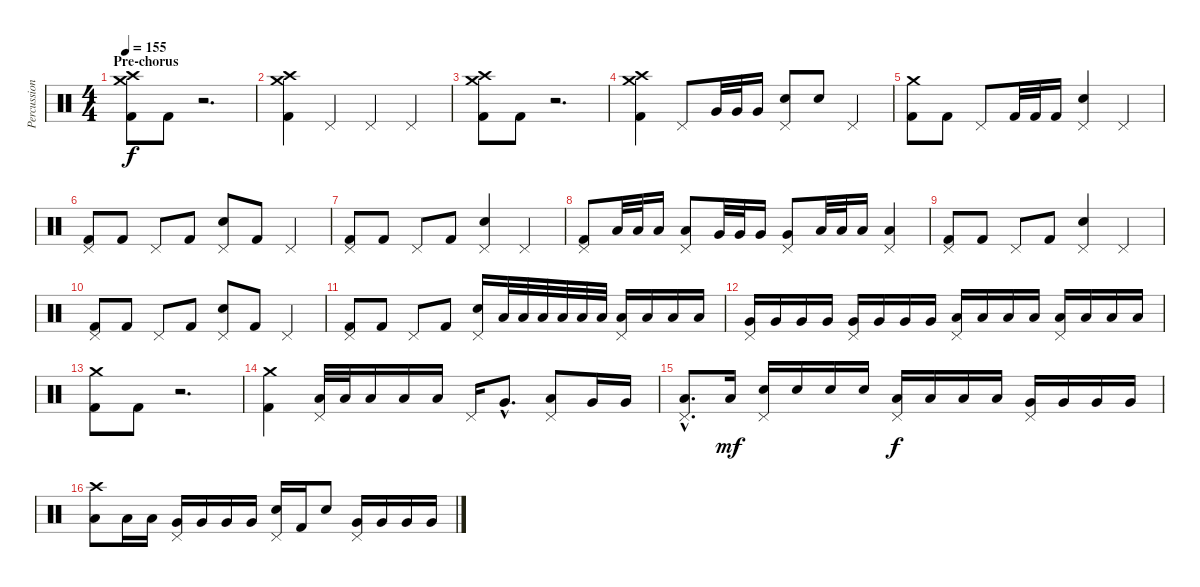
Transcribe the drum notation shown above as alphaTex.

\track ("Percussion" "Percussion") {instrument percussion}
\staff {score}
\articulation defaults
\ts (4 4)
\section ("" "Pre-chorus")
\tempo 155
\clef neutral
\ks c
("Crash medium (hit)" "Crash high (hit)" "Kick (hit) 2").8{dy f} "Kick (hit) 2".8 r.2{d} |
("Crash medium (hit)" "Crash high (hit)" "Kick (hit) 2").4 "Pedal Hi-Hat (hit)".4 "Pedal Hi-Hat (hit)".4 "Pedal Hi-Hat (hit)".4 |
("Crash medium (hit)" "Crash high (hit)" "Kick (hit) 2").8 "Kick (hit) 2".8 r.2{d} |
("Crash medium (hit)" "Crash high (hit)" "Kick (hit) 2").4 "Pedal Hi-Hat (hit)".8 "Very Low Tom (hit)".32 "Very Low Tom (hit)".32 "Very Low Tom (hit)".16 ("Pedal Hi-Hat (hit)" "Electric Snare (hit)").8 "Electric Snare (hit)".8 "Pedal Hi-Hat (hit)".4 |
("Crash medium (hit)" "Kick (hit) 2").8 "Kick (hit) 2".8 "Pedal Hi-Hat (hit)".8 "Kick (hit) 2".32 "Kick (hit) 2".32 "Kick (hit) 2".16 ("Pedal Hi-Hat (hit)" "Electric Snare (hit)").4 "Pedal Hi-Hat (hit)".4 |
("Pedal Hi-Hat (hit)" "Kick (hit) 2").8 "Kick (hit) 2".8 "Pedal Hi-Hat (hit)".8 "Kick (hit) 2".8 ("Pedal Hi-Hat (hit)" "Electric Snare (hit)").8 "Kick (hit) 2".8 "Pedal Hi-Hat (hit)".4 |
("Pedal Hi-Hat (hit)" "Kick (hit) 2").8 "Kick (hit) 2".8 "Pedal Hi-Hat (hit)".8 "Kick (hit) 2".8 ("Pedal Hi-Hat (hit)" "Electric Snare (hit)").4 "Pedal Hi-Hat (hit)".4 |
("Pedal Hi-Hat (hit)" "Kick (hit) 2").8 "Low Tom (hit)".32 "Low Tom (hit)".32 "Low Tom (hit)".16 ("Pedal Hi-Hat (hit)" "Low Tom (hit)").8 "Very Low Tom (hit)".32 "Very Low Tom (hit)".32 "Very Low Tom (hit)".16 ("Pedal Hi-Hat (hit)" "Very Low Tom (hit)").8 "Low Floor Tom (hit)".32 "Low Floor Tom (hit)".32 "Low Floor Tom (hit)".16 ("Pedal Hi-Hat (hit)" "Low Floor Tom (hit)").4 |
("Pedal Hi-Hat (hit)" "Kick (hit) 2").8 "Kick (hit) 2".8 "Pedal Hi-Hat (hit)".8 "Kick (hit) 2".8 ("Pedal Hi-Hat (hit)" "Electric Snare (hit)").4 "Pedal Hi-Hat (hit)".4 |
("Pedal Hi-Hat (hit)" "Kick (hit) 2").8 "Kick (hit) 2".8 "Pedal Hi-Hat (hit)".8 "Kick (hit) 2".8 ("Pedal Hi-Hat (hit)" "Electric Snare (hit)").8 "Kick (hit) 2".8 "Pedal Hi-Hat (hit)".4 |
("Pedal Hi-Hat (hit)" "Kick (hit) 2").8 "Kick (hit) 2".8 "Pedal Hi-Hat (hit)".8 "Kick (hit) 2".8 ("Pedal Hi-Hat (hit)" "Electric Snare (hit)").16 "Low Tom (hit)".32 "Low Tom (hit)".32 "Low Tom (hit)".32 "Low Tom (hit)".32 "Low Tom (hit)".32 "Low Tom (hit)".32 ("Pedal Hi-Hat (hit)" "Low Tom (hit)").16 "Low Tom (hit)".16 "Low Tom (hit)".16 "Low Tom (hit)".16 |
("Pedal Hi-Hat (hit)" "Very Low Tom (hit)").16 "Very Low Tom (hit)".16 "Very Low Tom (hit)".16 "Very Low Tom (hit)".16 ("Pedal Hi-Hat (hit)" "Very Low Tom (hit)").16 "Very Low Tom (hit)".16 "Very Low Tom (hit)".16 "Very Low Tom (hit)".16 ("Pedal Hi-Hat (hit)" "Low Floor Tom (hit)").16 "Low Floor Tom (hit)".16 "Low Floor Tom (hit)".16 "Low Floor Tom (hit)".16 ("Pedal Hi-Hat (hit)" "Low Floor Tom (hit)").16 "Low Floor Tom (hit)".16 "Low Floor Tom (hit)".16 "Low Floor Tom (hit)".16 |
("Crash medium (hit)" "Kick (hit) 2").8 "Kick (hit) 2".8 r.2{d} |
("Crash medium (hit)" "Kick (hit) 2").4 ("Pedal Hi-Hat (hit)" "Low Floor Tom (hit)").32 "Low Floor Tom (hit)".32 "Low Floor Tom (hit)".16 "Low Floor Tom (hit)".16 "Low Tom (hit)".16 "Pedal Hi-Hat (hit)".16 "Very Low Tom (hit)"{hac}.8{d} ("Pedal Hi-Hat (hit)" "Low Floor Tom (hit)").8 "Very Low Tom (hit)".16 "Very Low Tom (hit)".16 |
("Pedal Hi-Hat (hit)"{hac} "Low Tom (hit)"{hac}).8{d} "Low Tom (hit)".16{dy mf} ("Pedal Hi-Hat (hit)" "Electric Snare (hit)").16 "Electric Snare (hit)".16 "Electric Snare (hit)".16 "Electric Snare (hit)".16 ("Pedal Hi-Hat (hit)" "Low Tom (hit)").16{dy f} "Low Tom (hit)".16 "Low Tom (hit)".16 "Low Tom (hit)".16 ("Pedal Hi-Hat (hit)" "Very Low Tom (hit)").16 "Very Low Tom (hit)".16 "Very Low Tom (hit)".16 "Very Low Tom (hit)".16 |
("Crash high (hit)" "Low Floor Tom (hit)").8 "Low Floor Tom (hit)".16 "Low Floor Tom (hit)".16 ("Pedal Hi-Hat (hit)" "Very Low Tom (hit)").16 "Very Low Tom (hit)".16 "Very Low Tom (hit)".16 "Very Low Tom (hit)".16 ("Pedal Hi-Hat (hit)" "Electric Snare (hit)").16 "Kick (hit) 2".16 "Electric Snare (hit)".8 ("Pedal Hi-Hat (hit)" "Very Low Tom (hit)").16 "Very Low Tom (hit)".16 "Very Low Tom (hit)".16 "Very Low Tom (hit)".16
